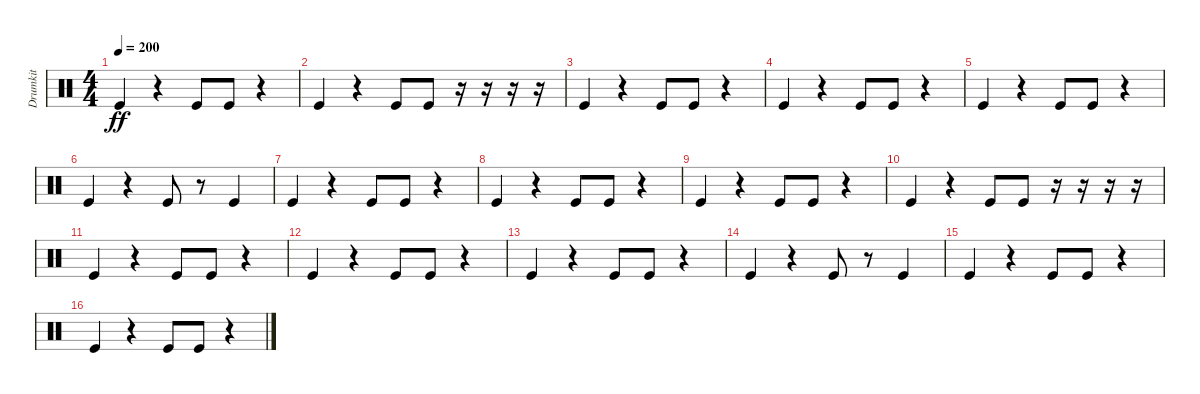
\track ("Drumkit" "Drumkit") {instrument percussion}
\staff {score}
\articulation defaults
\ts (4 4)
\tempo 200
\clef neutral
\ks c "Kick (hit)".4{dy ff}
r.4 "Kick (hit)".8 "Kick (hit)".8 r.4 |
"Kick (hit)".4 r.4 "Kick (hit)".8 "Kick (hit)".8 r.16 r.16 r.16 r.16 |
"Kick (hit)".4 r.4 "Kick (hit)".8 "Kick (hit)".8 r.4 |
"Kick (hit)".4 r.4 "Kick (hit)".8 "Kick (hit)".8 r.4 |
"Kick (hit)".4 r.4 "Kick (hit)".8 "Kick (hit)".8 r.4 |
"Kick (hit)".4 r.4 "Kick (hit)".8 r.8 "Kick (hit)".4 |
"Kick (hit)".4 r.4 "Kick (hit)".8 "Kick (hit)".8 r.4 |
"Kick (hit)".4 r.4 "Kick (hit)".8 "Kick (hit)".8 r.4 |
"Kick (hit)".4 r.4 "Kick (hit)".8 "Kick (hit)".8 r.4 |
"Kick (hit)".4 r.4 "Kick (hit)".8 "Kick (hit)".8 r.16 r.16 r.16 r.16 |
"Kick (hit)".4 r.4 "Kick (hit)".8 "Kick (hit)".8 r.4 |
"Kick (hit)".4 r.4 "Kick (hit)".8 "Kick (hit)".8 r.4 |
"Kick (hit)".4 r.4 "Kick (hit)".8 "Kick (hit)".8 r.4 |
"Kick (hit)".4 r.4 "Kick (hit)".8 r.8 "Kick (hit)".4 |
"Kick (hit)".4 r.4 "Kick (hit)".8 "Kick (hit)".8 r.4 |
"Kick (hit)".4 r.4 "Kick (hit)".8 "Kick (hit)".8 r.4
